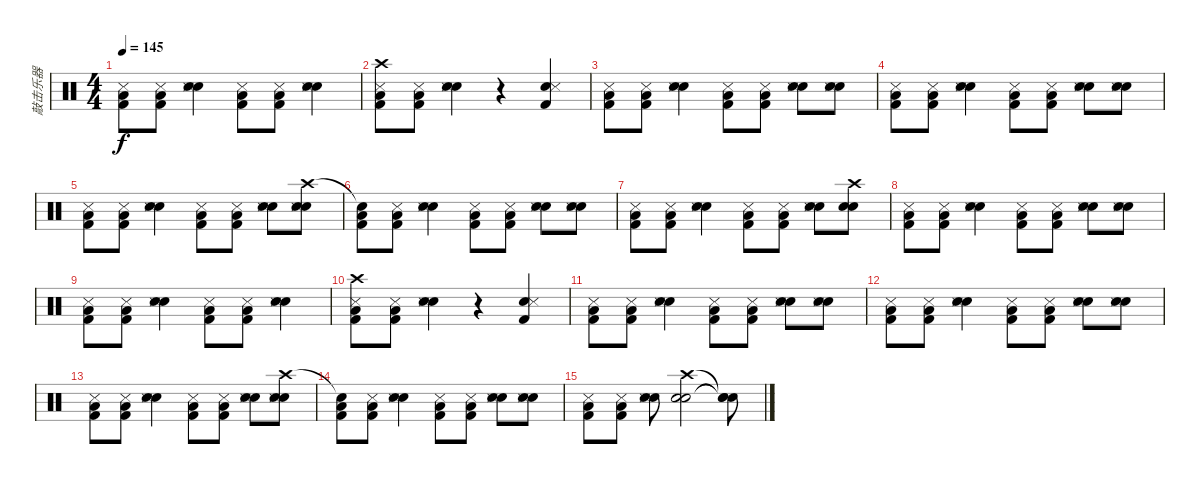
\track ("敲击乐器" "敲击乐器") {instrument percussion}
\staff {score}
\articulation defaults
\ts (4 4)
\tempo 145
\clef neutral
\ks c
("Low Floor Tom (hit)" "Kick (hit) 2" "Snare (side stick) 3").8{dy f} ("Low Floor Tom (hit)" "Kick (hit) 2" "Snare (side stick) 3").8 ("Snare (hit) 2" "Electric Snare (hit)" "Snare (side stick) 3").4 ("Low Floor Tom (hit)" "Kick (hit) 2" "Snare (side stick) 3").8 ("Low Floor Tom (hit)" "Kick (hit) 2" "Snare (side stick) 3").8 ("Snare (hit) 2" "Electric Snare (hit)" "Snare (side stick) 3").4 |
("Low Floor Tom (hit)" "Kick (hit) 2" "Snare (side stick) 3" "Crash high (hit)").8 ("Low Floor Tom (hit)" "Kick (hit) 2" "Snare (side stick) 3").8 ("Snare (hit) 2" "Electric Snare (hit)" "Snare (side stick) 3").4 r.4 ("Kick (hit) 2" "Electric Snare (hit)" "Snare (side stick) 3").4 |
("Low Floor Tom (hit)" "Kick (hit) 2" "Snare (side stick) 3").8 ("Low Floor Tom (hit)" "Kick (hit) 2" "Snare (side stick) 3").8 ("Snare (hit) 2" "Electric Snare (hit)" "Snare (side stick) 3").4 ("Low Floor Tom (hit)" "Kick (hit) 2" "Snare (side stick) 3").8 ("Low Floor Tom (hit)" "Kick (hit) 2" "Snare (side stick) 3").8 ("Snare (hit) 2" "Electric Snare (hit)" "Snare (side stick) 3").8 ("Snare (hit) 2" "Electric Snare (hit)" "Snare (side stick) 3").8 |
("Low Floor Tom (hit)" "Kick (hit) 2" "Snare (side stick) 3").8 ("Low Floor Tom (hit)" "Kick (hit) 2" "Snare (side stick) 3").8 ("Snare (hit) 2" "Electric Snare (hit)" "Snare (side stick) 3").4 ("Low Floor Tom (hit)" "Kick (hit) 2" "Snare (side stick) 3").8 ("Low Floor Tom (hit)" "Kick (hit) 2" "Snare (side stick) 3").8 ("Snare (hit) 2" "Electric Snare (hit)" "Snare (side stick) 3").8 ("Snare (hit) 2" "Electric Snare (hit)" "Snare (side stick) 3").8 |
("Low Floor Tom (hit)" "Kick (hit) 2" "Snare (side stick) 3").8 ("Low Floor Tom (hit)" "Kick (hit) 2" "Snare (side stick) 3").8 ("Snare (hit) 2" "Electric Snare (hit)" "Snare (side stick) 3").4 ("Low Floor Tom (hit)" "Kick (hit) 2" "Snare (side stick) 3").8 ("Low Floor Tom (hit)" "Kick (hit) 2" "Snare (side stick) 3").8 ("Snare (hit) 2" "Electric Snare (hit)" "Snare (side stick) 3").8 ("Snare (hit) 2" "Snare (side stick) 3" "Crash high (hit)" "Electric Snare (hit)").8 |
("Low Floor Tom (hit)" "Kick (hit) 2" "Snare (hit)"{t}).8 ("Low Floor Tom (hit)" "Kick (hit) 2" "Snare (side stick) 3").8 ("Snare (hit) 2" "Electric Snare (hit)" "Snare (side stick) 3").4 ("Low Floor Tom (hit)" "Kick (hit) 2" "Snare (side stick) 3").8 ("Low Floor Tom (hit)" "Kick (hit) 2" "Snare (side stick) 3").8 ("Snare (hit) 2" "Electric Snare (hit)" "Snare (side stick) 3").8 ("Snare (hit) 2" "Electric Snare (hit)" "Snare (side stick) 3").8 |
("Low Floor Tom (hit)" "Kick (hit) 2" "Snare (side stick) 3").8 ("Low Floor Tom (hit)" "Kick (hit) 2" "Snare (side stick) 3").8 ("Snare (hit) 2" "Electric Snare (hit)" "Snare (side stick) 3").4 ("Low Floor Tom (hit)" "Kick (hit) 2" "Snare (side stick) 3").8 ("Low Floor Tom (hit)" "Kick (hit) 2" "Snare (side stick) 3").8 ("Snare (hit) 2" "Electric Snare (hit)" "Snare (side stick) 3").8 ("Snare (hit) 2" "Electric Snare (hit)" "Crash high (hit)").8 |
("Low Floor Tom (hit)" "Kick (hit) 2" "Snare (side stick) 3").8 ("Low Floor Tom (hit)" "Kick (hit) 2" "Snare (side stick) 3").8 ("Snare (hit) 2" "Electric Snare (hit)" "Snare (side stick) 3").4 ("Low Floor Tom (hit)" "Kick (hit) 2" "Snare (side stick) 3").8 ("Low Floor Tom (hit)" "Kick (hit) 2" "Snare (side stick) 3").8 ("Snare (hit) 2" "Electric Snare (hit)" "Snare (side stick) 3").8 ("Snare (hit) 2" "Electric Snare (hit)" "Snare (side stick) 3").8 |
("Low Floor Tom (hit)" "Kick (hit) 2" "Snare (side stick) 3").8 ("Low Floor Tom (hit)" "Kick (hit) 2" "Snare (side stick) 3").8 ("Snare (hit) 2" "Electric Snare (hit)" "Snare (side stick) 3").4 ("Low Floor Tom (hit)" "Kick (hit) 2" "Snare (side stick) 3").8 ("Low Floor Tom (hit)" "Kick (hit) 2" "Snare (side stick) 3").8 ("Snare (hit) 2" "Electric Snare (hit)" "Snare (side stick) 3").4 |
("Low Floor Tom (hit)" "Kick (hit) 2" "Snare (side stick) 3" "Crash high (hit)").8 ("Low Floor Tom (hit)" "Kick (hit) 2" "Snare (side stick) 3").8 ("Snare (hit) 2" "Electric Snare (hit)" "Snare (side stick) 3").4 r.4 ("Kick (hit) 2" "Electric Snare (hit)" "Snare (side stick) 3").4 |
("Low Floor Tom (hit)" "Kick (hit) 2" "Snare (side stick) 3").8 ("Low Floor Tom (hit)" "Kick (hit) 2" "Snare (side stick) 3").8 ("Snare (hit) 2" "Electric Snare (hit)" "Snare (side stick) 3").4 ("Low Floor Tom (hit)" "Kick (hit) 2" "Snare (side stick) 3").8 ("Low Floor Tom (hit)" "Kick (hit) 2" "Snare (side stick) 3").8 ("Snare (hit) 2" "Electric Snare (hit)" "Snare (side stick) 3").8 ("Snare (hit) 2" "Electric Snare (hit)" "Snare (side stick) 3").8 |
("Low Floor Tom (hit)" "Kick (hit) 2" "Snare (side stick) 3").8 ("Low Floor Tom (hit)" "Kick (hit) 2" "Snare (side stick) 3").8 ("Snare (hit) 2" "Electric Snare (hit)" "Snare (side stick) 3").4 ("Low Floor Tom (hit)" "Kick (hit) 2" "Snare (side stick) 3").8 ("Low Floor Tom (hit)" "Kick (hit) 2" "Snare (side stick) 3").8 ("Snare (hit) 2" "Electric Snare (hit)" "Snare (side stick) 3").8 ("Snare (hit) 2" "Electric Snare (hit)" "Snare (side stick) 3").8 |
("Low Floor Tom (hit)" "Kick (hit) 2" "Snare (side stick) 3").8 ("Low Floor Tom (hit)" "Kick (hit) 2" "Snare (side stick) 3").8 ("Snare (hit) 2" "Electric Snare (hit)" "Snare (side stick) 3").4 ("Low Floor Tom (hit)" "Kick (hit) 2" "Snare (side stick) 3").8 ("Low Floor Tom (hit)" "Kick (hit) 2" "Snare (side stick) 3").8 ("Snare (hit) 2" "Electric Snare (hit)" "Snare (side stick) 3").8 ("Snare (hit) 2" "Snare (side stick) 3" "Crash high (hit)" "Electric Snare (hit)").8 |
("Low Floor Tom (hit)" "Kick (hit) 2" "Snare (hit)"{t}).8 ("Low Floor Tom (hit)" "Kick (hit) 2" "Snare (side stick) 3").8 ("Snare (hit) 2" "Electric Snare (hit)" "Snare (side stick) 3").4 ("Low Floor Tom (hit)" "Kick (hit) 2" "Snare (side stick) 3").8 ("Low Floor Tom (hit)" "Kick (hit) 2" "Snare (side stick) 3").8 ("Snare (hit) 2" "Electric Snare (hit)" "Snare (side stick) 3").8 ("Snare (hit) 2" "Electric Snare (hit)" "Snare (side stick) 3").8 |
("Low Floor Tom (hit)" "Kick (hit) 2" "Snare (side stick) 3").8 ("Low Floor Tom (hit)" "Kick (hit) 2" "Snare (side stick) 3").8 ("Snare (hit) 2" "Electric Snare (hit)" "Snare (side stick) 3").8 ("Snare (hit) 2" "Electric Snare (hit)" "Crash high (hit)").2 ("Snare (hit)"{t} "Snare (hit)"{t} "Snare (hit)"{t}).8
